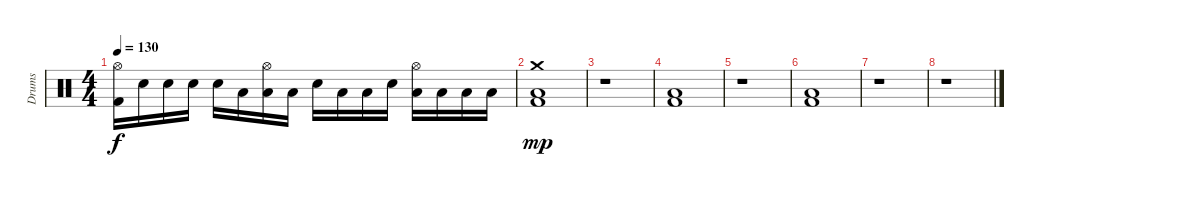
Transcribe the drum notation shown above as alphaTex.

\track ("Drums" "Drums") {instrument percussion}
\staff {score}
\articulation defaults
\ts (4 4)
\tempo 130
\clef neutral
\ks c
("Hi-Hat (open)" "Kick (hit) 2").16{dy f} "Snare (hit) 2".16 "Snare (hit) 2".16 "Snare (hit) 2".16 "Snare (hit) 2".16 "Low Tom (hit)".16 ("Hi-Hat (open)" "Low Floor Tom (hit)").16 "Low Floor Tom (hit)".16 "Snare (hit) 2".16 "Low Tom (hit)".16 "Low Tom (hit)".16 "Snare (hit) 2".16 ("Hi-Hat (open)" "Low Tom (hit)").16 "Low Tom (hit)".16 "Low Floor Tom (hit)".16 "Low Floor Tom (hit)".16 |
("Crash medium (hit)" "Low Floor Tom (hit)" "Kick (hit) 2").1{dy mp} |
r.1 |
("Low Floor Tom (hit)" "Kick (hit) 2").1 |
r.1 |
("Low Floor Tom (hit)" "Kick (hit) 2").1 |
r.1 |
r.1
